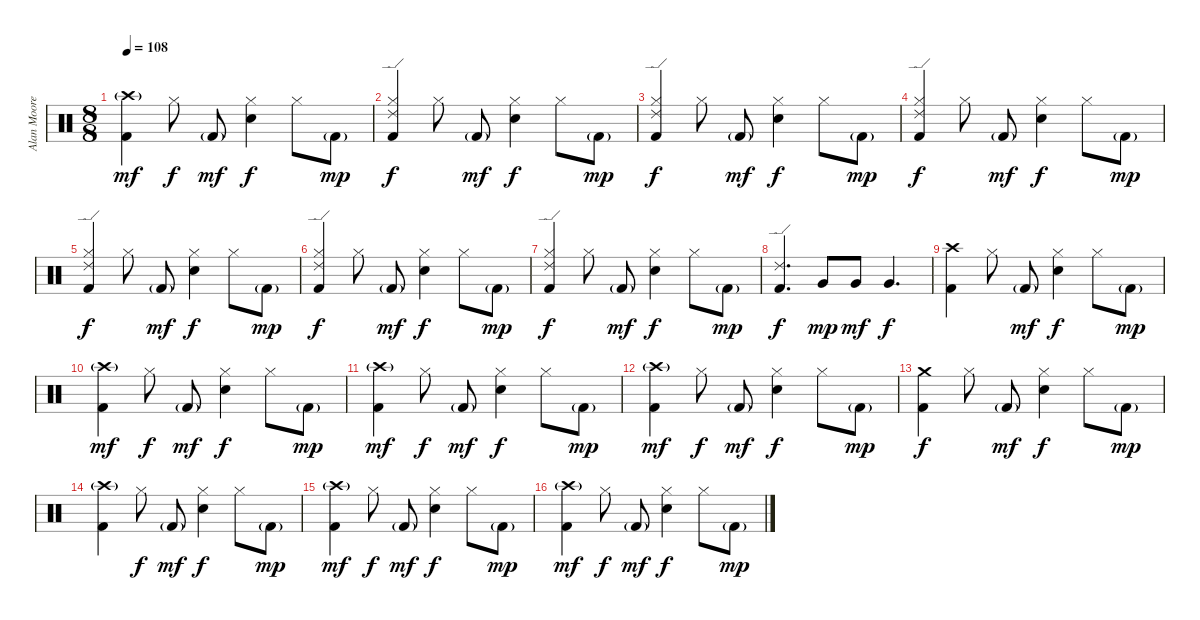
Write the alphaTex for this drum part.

\track ("Alan Moore" "Alan Moore") {instrument percussion}
\staff {score}
\articulation defaults
\ts (8 8)
\tempo 108
\clef neutral
\ks c
("Crash high (hit)"{g} "Kick (hit) 2").4{dy mf} "Hi-Hat (closed)".8{dy f} "Kick (hit) 2"{g}.8{dy mf} ("Hi-Hat (closed)" "Snare (hit) 2").4{dy f} "Hi-Hat (closed)".8 "Kick (hit) 2"{g}.8{dy mp} |
("Hi-Hat (closed)" "Ride (edge) 2" "Kick (hit) 2").4{dy f} "Hi-Hat (closed)".8 "Kick (hit) 2"{g}.8{dy mf} ("Hi-Hat (closed)" "Snare (hit) 2").4{dy f} "Hi-Hat (closed)".8 "Kick (hit) 2"{g}.8{dy mp} |
("Hi-Hat (closed)" "Ride (edge) 2" "Kick (hit) 2").4{dy f} "Hi-Hat (closed)".8 "Kick (hit) 2"{g}.8{dy mf} ("Hi-Hat (closed)" "Snare (hit) 2").4{dy f} "Hi-Hat (closed)".8 "Kick (hit) 2"{g}.8{dy mp} |
("Hi-Hat (closed)" "Ride (edge) 2" "Kick (hit) 2").4{dy f} "Hi-Hat (closed)".8 "Kick (hit) 2"{g}.8{dy mf} ("Hi-Hat (closed)" "Snare (hit) 2").4{dy f} "Hi-Hat (closed)".8 "Kick (hit) 2"{g}.8{dy mp} |
("Hi-Hat (closed)" "Ride (edge) 2" "Kick (hit) 2").4{dy f} "Hi-Hat (closed)".8 "Kick (hit) 2"{g}.8{dy mf} ("Hi-Hat (closed)" "Snare (hit) 2").4{dy f} "Hi-Hat (closed)".8 "Kick (hit) 2"{g}.8{dy mp} |
("Hi-Hat (closed)" "Ride (edge) 2" "Kick (hit) 2").4{dy f} "Hi-Hat (closed)".8 "Kick (hit) 2"{g}.8{dy mf} ("Hi-Hat (closed)" "Snare (hit) 2").4{dy f} "Hi-Hat (closed)".8 "Kick (hit) 2"{g}.8{dy mp} |
("Hi-Hat (closed)" "Ride (edge) 2" "Kick (hit) 2").4{dy f} "Hi-Hat (closed)".8 "Kick (hit) 2"{g}.8{dy mf} ("Hi-Hat (closed)" "Snare (hit) 2").4{dy f} "Hi-Hat (closed)".8 "Kick (hit) 2"{g}.8{dy mp} |
("Ride (edge) 2" "Kick (hit) 2").4{d dy f} "Very Low Tom (hit)".8{dy mp} "Very Low Tom (hit)".8{dy mf} "Very Low Tom (hit)".4{d dy f} |
("Crash high (hit)" "Kick (hit) 2").4 "Hi-Hat (closed)".8 "Kick (hit) 2"{g}.8{dy mf} ("Hi-Hat (closed)" "Snare (hit) 2").4{dy f} "Hi-Hat (closed)".8 "Kick (hit) 2"{g}.8{dy mp} |
("Crash high (hit)"{g} "Kick (hit) 2").4{dy mf} "Hi-Hat (closed)".8{dy f} "Kick (hit) 2"{g}.8{dy mf} ("Hi-Hat (closed)" "Snare (hit) 2").4{dy f} "Hi-Hat (closed)".8 "Kick (hit) 2"{g}.8{dy mp} |
("Crash high (hit)"{g} "Kick (hit) 2").4{dy mf} "Hi-Hat (closed)".8{dy f} "Kick (hit) 2"{g}.8{dy mf} ("Hi-Hat (closed)" "Snare (hit) 2").4{dy f} "Hi-Hat (closed)".8 "Kick (hit) 2"{g}.8{dy mp} |
("Crash high (hit)"{g} "Kick (hit) 2").4{dy mf} "Hi-Hat (closed)".8{dy f} "Kick (hit) 2"{g}.8{dy mf} ("Hi-Hat (closed)" "Snare (hit) 2").4{dy f} "Hi-Hat (closed)".8 "Kick (hit) 2"{g}.8{dy mp} |
("Crash medium (hit)" "Kick (hit) 2").4{dy f} "Hi-Hat (closed)".8 "Kick (hit) 2"{g}.8{dy mf} ("Hi-Hat (closed)" "Snare (hit) 2").4{dy f} "Hi-Hat (closed)".8 "Kick (hit) 2"{g}.8{dy mp} |
("Crash high (hit)"{g} "Kick (hit) 2").4 "Hi-Hat (closed)".8{dy f} "Kick (hit) 2"{g}.8{dy mf} ("Hi-Hat (closed)" "Snare (hit) 2").4{dy f} "Hi-Hat (closed)".8 "Kick (hit) 2"{g}.8{dy mp} |
("Crash high (hit)"{g} "Kick (hit) 2").4{dy mf} "Hi-Hat (closed)".8{dy f} "Kick (hit) 2"{g}.8{dy mf} ("Hi-Hat (closed)" "Snare (hit) 2").4{dy f} "Hi-Hat (closed)".8 "Kick (hit) 2"{g}.8{dy mp} |
("Crash high (hit)"{g} "Kick (hit) 2").4{dy mf} "Hi-Hat (closed)".8{dy f} "Kick (hit) 2"{g}.8{dy mf} ("Hi-Hat (closed)" "Snare (hit) 2").4{dy f} "Hi-Hat (closed)".8 "Kick (hit) 2"{g}.8{dy mp}
